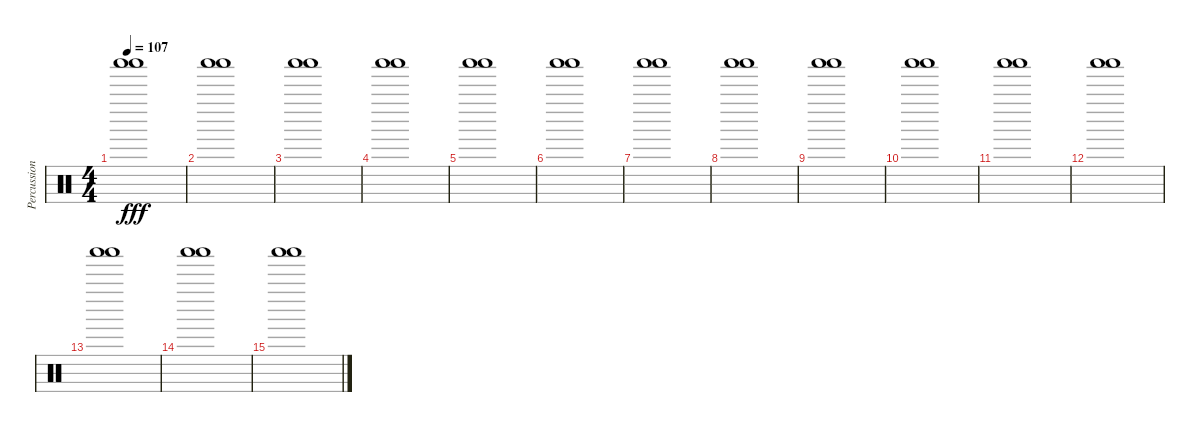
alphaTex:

\track ("Percussions" "Percussion") {instrument percussion}
\staff {score}
\articulation defaults
\ts (4 4)
\tempo 107
\clef neutral
\ks c
("Shaker (hit)" "Shaker (hit)").1{dy fff} |
("Shaker (hit)" "Shaker (hit)").1 |
("Shaker (hit)" "Shaker (hit)").1 |
("Shaker (hit)" "Shaker (hit)").1 |
("Shaker (hit)" "Shaker (hit)").1 |
("Shaker (hit)" "Shaker (hit)").1 |
("Shaker (hit)" "Shaker (hit)").1 |
("Shaker (hit)" "Shaker (hit)").1 |
("Shaker (hit)" "Shaker (hit)").1 |
("Shaker (hit)" "Shaker (hit)").1 |
("Shaker (hit)" "Shaker (hit)").1 |
("Shaker (hit)" "Shaker (hit)").1 |
("Shaker (hit)" "Shaker (hit)").1 |
("Shaker (hit)" "Shaker (hit)").1 |
("Shaker (hit)" "Shaker (hit)").1
